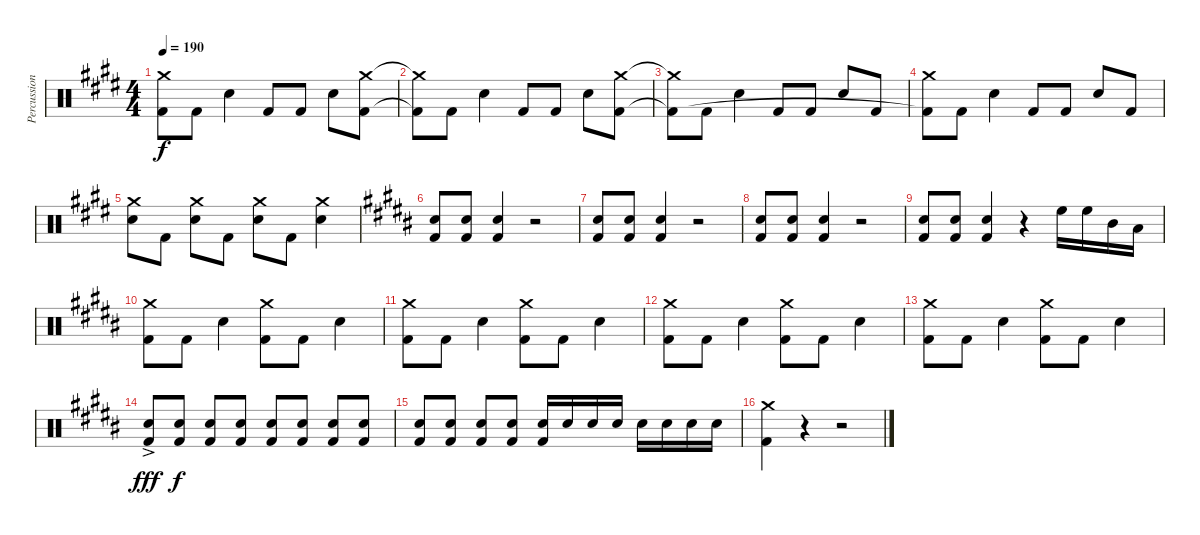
\track ("Percussion" "Percussion") {instrument percussion}
\staff {score}
\articulation defaults
\ts (4 4)
\tempo 190
\clef neutral
\ks e
("Crash medium (hit)"{t} "Kick (hit) 2"{t}).8{dy f} "Kick (hit) 2".8 "Snare (hit) 2".4 "Kick (hit) 2".8 "Kick (hit) 2".8 "Snare (hit) 2".8 ("Crash medium (hit)" "Kick (hit) 2").8 |
("Crash medium (hit)"{t} "Kick (hit) 2"{t}).8 "Kick (hit) 2".8 "Snare (hit) 2".4 "Kick (hit) 2".8 "Kick (hit) 2".8 "Snare (hit) 2".8 ("Crash medium (hit)" "Kick (hit) 2").8 |
("Crash medium (hit)"{t} "Kick (hit) 2"{t}).8 "Kick (hit) 2".8 "Snare (hit) 2".4 "Kick (hit) 2".8 "Kick (hit) 2".8 "Snare (hit) 2".8 "Kick (hit) 2".8 |
("Crash medium (hit)" "Kick (hit) 2"{t}).8 "Kick (hit) 2".8 "Snare (hit) 2".4 "Kick (hit) 2".8 "Kick (hit) 2".8 "Snare (hit) 2".8 "Kick (hit) 2".8 |
("Crash medium (hit)" "Snare (hit) 2").8 "Kick (hit) 2".8 ("Crash medium (hit)" "Snare (hit) 2").8 "Kick (hit) 2".8 ("Crash medium (hit)" "Snare (hit) 2").8 "Kick (hit) 2".8 ("Crash medium (hit)" "Snare (hit) 2").4 |
\ks b
("Snare (hit) 2" "Kick (hit) 2").8 ("Snare (hit) 2" "Kick (hit) 2").8 ("Snare (hit) 2" "Kick (hit) 2").4 r.2 |
("Snare (hit) 2" "Kick (hit) 2").8 ("Snare (hit) 2" "Kick (hit) 2").8 ("Snare (hit) 2" "Kick (hit) 2").4 r.2 |
("Snare (hit) 2" "Kick (hit) 2").8 ("Snare (hit) 2" "Kick (hit) 2").8 ("Snare (hit) 2" "Kick (hit) 2").4 r.2 |
("Snare (hit) 2" "Kick (hit) 2").8 ("Snare (hit) 2" "Kick (hit) 2").8 ("Snare (hit) 2" "Kick (hit) 2").4 r.4 "High Floor Tom (hit)".16 "High Floor Tom (hit)".16 "Mid Tom (hit)".16 "Low Floor Tom (hit)".16 |
("Crash medium (hit)" "Kick (hit) 2").8 "Kick (hit) 2".8 "Snare (hit) 2".4 ("Crash medium (hit)" "Kick (hit) 2").8 "Kick (hit) 2".8 "Snare (hit) 2".4 |
("Crash medium (hit)" "Kick (hit) 2").8 "Kick (hit) 2".8 "Snare (hit) 2".4 ("Crash medium (hit)" "Kick (hit) 2").8 "Kick (hit) 2".8 "Snare (hit) 2".4 |
("Crash medium (hit)" "Kick (hit) 2").8 "Kick (hit) 2".8 "Snare (hit) 2".4 ("Crash medium (hit)" "Kick (hit) 2").8 "Kick (hit) 2".8 "Snare (hit) 2".4 |
("Crash medium (hit)" "Kick (hit) 2").8 "Kick (hit) 2".8 "Snare (hit) 2".4 ("Crash medium (hit)" "Kick (hit) 2").8 "Kick (hit) 2".8 "Snare (hit) 2".4 |
("Snare (hit) 2"{ac} "Kick (hit) 2").8{dy fff} ("Snare (hit) 2" "Kick (hit) 2").8{dy f} ("Snare (hit) 2" "Kick (hit) 2").8 ("Snare (hit) 2" "Kick (hit) 2").8 ("Snare (hit) 2" "Kick (hit) 2").8 ("Snare (hit) 2" "Kick (hit) 2").8 ("Snare (hit) 2" "Kick (hit) 2").8 ("Snare (hit) 2" "Kick (hit) 2").8 |
("Snare (hit) 2" "Kick (hit) 2").8 ("Snare (hit) 2" "Kick (hit) 2").8 ("Snare (hit) 2" "Kick (hit) 2").8 ("Snare (hit) 2" "Kick (hit) 2").8 ("Snare (hit) 2" "Kick (hit) 2").16 "Snare (hit) 2".16 "Snare (hit) 2".16 "Snare (hit) 2".16 "Snare (hit) 2".16 "Snare (hit) 2".16 "Snare (hit) 2".16 "Snare (hit) 2".16 |
("Crash medium (hit)" "Kick (hit) 2").4 r.4 r.2
